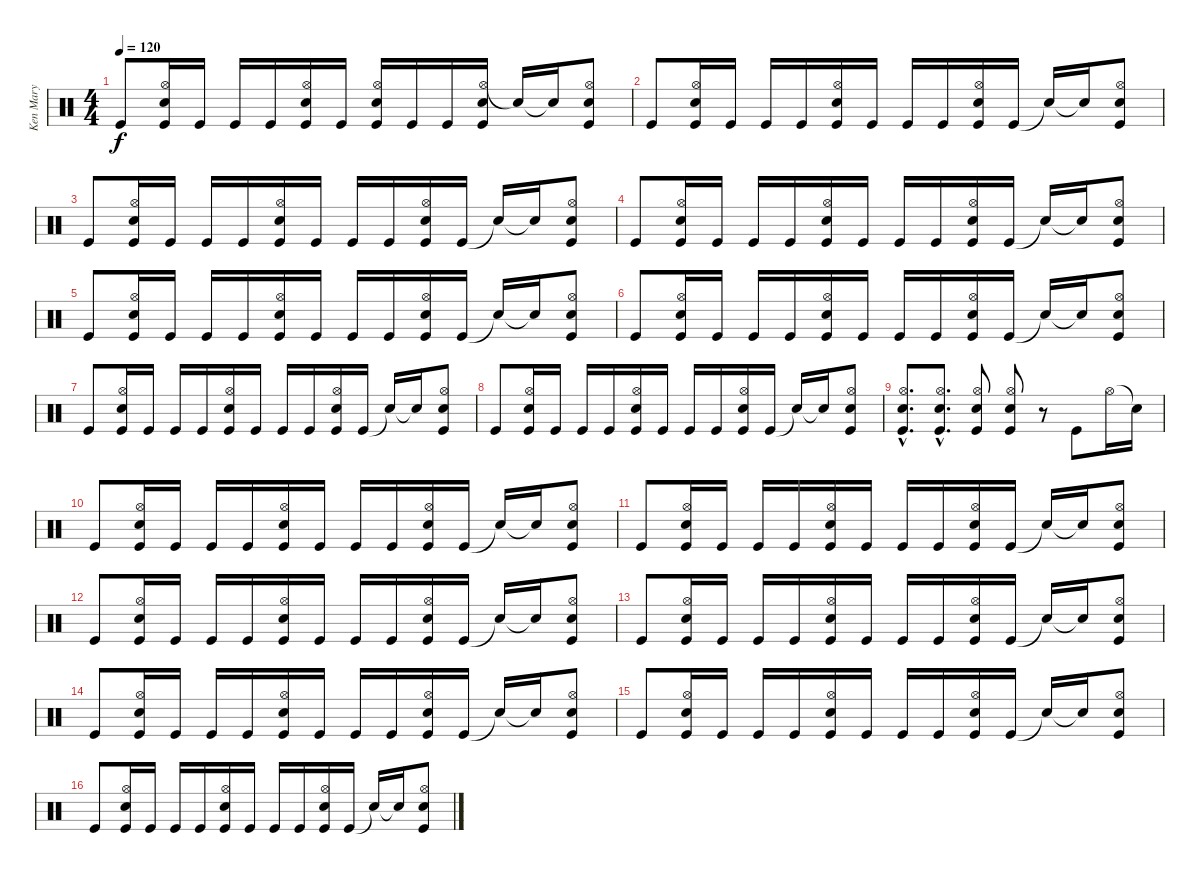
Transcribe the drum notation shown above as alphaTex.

\track ("Ken Mary" "Ken Mary") {instrument percussion}
\staff {score}
\articulation defaults
\ts (4 4)
\tempo 120
\clef neutral
\ks c "Kick (hit)".8{dy f}
("Hi-Hat (open)" "Snare (hit) 2" "Kick (hit)").16 "Kick (hit)".16 "Kick (hit)".16 "Kick (hit)".16 ("Hi-Hat (open)" "Snare (hit) 2" "Kick (hit)").16 "Kick (hit)".16 ("Hi-Hat (open)" "Snare (hit) 2" "Kick (hit)").16 "Kick (hit)".16 "Kick (hit)".16 ("Hi-Hat (open)" "Snare (hit) 2" "Kick (hit)").16 "Snare (hit)"{t}.16 "Snare (hit)"{t}.16 ("Hi-Hat (open)" "Snare (hit) 2" "Kick (hit)").8 |
"Kick (hit)".8 ("Hi-Hat (open)" "Snare (hit) 2" "Kick (hit)").16 "Kick (hit)".16 "Kick (hit)".16 "Kick (hit)".16 ("Hi-Hat (open)" "Snare (hit) 2" "Kick (hit)").16 "Kick (hit)".16 "Kick (hit)".16 "Kick (hit)".16 ("Hi-Hat (open)" "Snare (hit) 2" "Kick (hit)").16 "Kick (hit)".16 "Snare (hit)"{t}.16 "Snare (hit)"{t}.16 ("Snare (hit) 2" "Hi-Hat (open)" "Kick (hit)").8 |
"Kick (hit)".8 ("Hi-Hat (open)" "Snare (hit) 2" "Kick (hit)").16 "Kick (hit)".16 "Kick (hit)".16 "Kick (hit)".16 ("Hi-Hat (open)" "Snare (hit) 2" "Kick (hit)").16 "Kick (hit)".16 "Kick (hit)".16 "Kick (hit)".16 ("Hi-Hat (open)" "Snare (hit) 2" "Kick (hit)").16 "Kick (hit)".16 "Snare (hit)"{t}.16 "Snare (hit)"{t}.16 ("Snare (hit) 2" "Hi-Hat (open)" "Kick (hit)").8 |
"Kick (hit)".8 ("Hi-Hat (open)" "Snare (hit) 2" "Kick (hit)").16 "Kick (hit)".16 "Kick (hit)".16 "Kick (hit)".16 ("Hi-Hat (open)" "Snare (hit) 2" "Kick (hit)").16 "Kick (hit)".16 "Kick (hit)".16 "Kick (hit)".16 ("Hi-Hat (open)" "Snare (hit) 2" "Kick (hit)").16 "Kick (hit)".16 "Snare (hit)"{t}.16 "Snare (hit)"{t}.16 ("Snare (hit) 2" "Hi-Hat (open)" "Kick (hit)").8 |
"Kick (hit)".8 ("Hi-Hat (open)" "Snare (hit) 2" "Kick (hit)").16 "Kick (hit)".16 "Kick (hit)".16 "Kick (hit)".16 ("Hi-Hat (open)" "Snare (hit) 2" "Kick (hit)").16 "Kick (hit)".16 "Kick (hit)".16 "Kick (hit)".16 ("Hi-Hat (open)" "Snare (hit) 2" "Kick (hit)").16 "Kick (hit)".16 "Snare (hit)"{t}.16 "Snare (hit)"{t}.16 ("Snare (hit) 2" "Hi-Hat (open)" "Kick (hit)").8 |
"Kick (hit)".8 ("Hi-Hat (open)" "Snare (hit) 2" "Kick (hit)").16 "Kick (hit)".16 "Kick (hit)".16 "Kick (hit)".16 ("Hi-Hat (open)" "Snare (hit) 2" "Kick (hit)").16 "Kick (hit)".16 "Kick (hit)".16 "Kick (hit)".16 ("Hi-Hat (open)" "Snare (hit) 2" "Kick (hit)").16 "Kick (hit)".16 "Snare (hit)"{t}.16 "Snare (hit)"{t}.16 ("Snare (hit) 2" "Hi-Hat (open)" "Kick (hit)").8 |
"Kick (hit)".8 ("Hi-Hat (open)" "Snare (hit) 2" "Kick (hit)").16 "Kick (hit)".16 "Kick (hit)".16 "Kick (hit)".16 ("Hi-Hat (open)" "Snare (hit) 2" "Kick (hit)").16 "Kick (hit)".16 "Kick (hit)".16 "Kick (hit)".16 ("Hi-Hat (open)" "Snare (hit) 2" "Kick (hit)").16 "Kick (hit)".16 "Snare (hit)"{t}.16 "Snare (hit)"{t}.16 ("Snare (hit) 2" "Hi-Hat (open)" "Kick (hit)").8 |
"Kick (hit)".8 ("Hi-Hat (open)" "Snare (hit) 2" "Kick (hit)").16 "Kick (hit)".16 "Kick (hit)".16 "Kick (hit)".16 ("Hi-Hat (open)" "Snare (hit) 2" "Kick (hit)").16 "Kick (hit)".16 "Kick (hit)".16 "Kick (hit)".16 ("Hi-Hat (open)" "Snare (hit) 2" "Kick (hit)").16 "Kick (hit)".16 "Snare (hit)"{t}.16 "Snare (hit)"{t}.16 ("Snare (hit) 2" "Hi-Hat (open)" "Kick (hit)").8 |
("Hi-Hat (open)"{hac} "Snare (hit) 2"{hac} "Kick (hit)"{hac}).8{d} ("Hi-Hat (open)"{hac} "Snare (hit) 2"{hac} "Kick (hit)"{hac}).8{d} ("Hi-Hat (open)" "Snare (hit) 2" "Kick (hit)").8 ("Hi-Hat (open)" "Snare (hit) 2" "Kick (hit)").8 r.8 "Kick (hit)".8 "Hi-Hat (open)".16 "Snare (hit)"{t}.16 |
"Kick (hit)".8 ("Hi-Hat (open)" "Snare (hit) 2" "Kick (hit)").16 "Kick (hit)".16 "Kick (hit)".16 "Kick (hit)".16 ("Hi-Hat (open)" "Snare (hit) 2" "Kick (hit)").16 "Kick (hit)".16 "Kick (hit)".16 "Kick (hit)".16 ("Hi-Hat (open)" "Snare (hit) 2" "Kick (hit)").16 "Kick (hit)".16 "Snare (hit)"{t}.16 "Snare (hit)"{t}.16 ("Snare (hit) 2" "Hi-Hat (open)" "Kick (hit)").8 |
"Kick (hit)".8 ("Hi-Hat (open)" "Snare (hit) 2" "Kick (hit)").16 "Kick (hit)".16 "Kick (hit)".16 "Kick (hit)".16 ("Hi-Hat (open)" "Snare (hit) 2" "Kick (hit)").16 "Kick (hit)".16 "Kick (hit)".16 "Kick (hit)".16 ("Hi-Hat (open)" "Snare (hit) 2" "Kick (hit)").16 "Kick (hit)".16 "Snare (hit)"{t}.16 "Snare (hit)"{t}.16 ("Snare (hit) 2" "Hi-Hat (open)" "Kick (hit)").8 |
"Kick (hit)".8 ("Hi-Hat (open)" "Snare (hit) 2" "Kick (hit)").16 "Kick (hit)".16 "Kick (hit)".16 "Kick (hit)".16 ("Hi-Hat (open)" "Snare (hit) 2" "Kick (hit)").16 "Kick (hit)".16 "Kick (hit)".16 "Kick (hit)".16 ("Hi-Hat (open)" "Snare (hit) 2" "Kick (hit)").16 "Kick (hit)".16 "Snare (hit)"{t}.16 "Snare (hit)"{t}.16 ("Snare (hit) 2" "Hi-Hat (open)" "Kick (hit)").8 |
"Kick (hit)".8 ("Hi-Hat (open)" "Snare (hit) 2" "Kick (hit)").16 "Kick (hit)".16 "Kick (hit)".16 "Kick (hit)".16 ("Hi-Hat (open)" "Snare (hit) 2" "Kick (hit)").16 "Kick (hit)".16 "Kick (hit)".16 "Kick (hit)".16 ("Hi-Hat (open)" "Snare (hit) 2" "Kick (hit)").16 "Kick (hit)".16 "Snare (hit)"{t}.16 "Snare (hit)"{t}.16 ("Snare (hit) 2" "Hi-Hat (open)" "Kick (hit)").8 |
"Kick (hit)".8 ("Hi-Hat (open)" "Snare (hit) 2" "Kick (hit)").16 "Kick (hit)".16 "Kick (hit)".16 "Kick (hit)".16 ("Hi-Hat (open)" "Snare (hit) 2" "Kick (hit)").16 "Kick (hit)".16 "Kick (hit)".16 "Kick (hit)".16 ("Hi-Hat (open)" "Snare (hit) 2" "Kick (hit)").16 "Kick (hit)".16 "Snare (hit)"{t}.16 "Snare (hit)"{t}.16 ("Snare (hit) 2" "Hi-Hat (open)" "Kick (hit)").8 |
"Kick (hit)".8 ("Hi-Hat (open)" "Snare (hit) 2" "Kick (hit)").16 "Kick (hit)".16 "Kick (hit)".16 "Kick (hit)".16 ("Hi-Hat (open)" "Snare (hit) 2" "Kick (hit)").16 "Kick (hit)".16 "Kick (hit)".16 "Kick (hit)".16 ("Hi-Hat (open)" "Snare (hit) 2" "Kick (hit)").16 "Kick (hit)".16 "Snare (hit)"{t}.16 "Snare (hit)"{t}.16 ("Snare (hit) 2" "Hi-Hat (open)" "Kick (hit)").8 |
"Kick (hit)".8 ("Hi-Hat (open)" "Snare (hit) 2" "Kick (hit)").16 "Kick (hit)".16 "Kick (hit)".16 "Kick (hit)".16 ("Hi-Hat (open)" "Snare (hit) 2" "Kick (hit)").16 "Kick (hit)".16 "Kick (hit)".16 "Kick (hit)".16 ("Hi-Hat (open)" "Snare (hit) 2" "Kick (hit)").16 "Kick (hit)".16 "Snare (hit)"{t}.16 "Snare (hit)"{t}.16 ("Snare (hit) 2" "Hi-Hat (open)" "Kick (hit)").8
